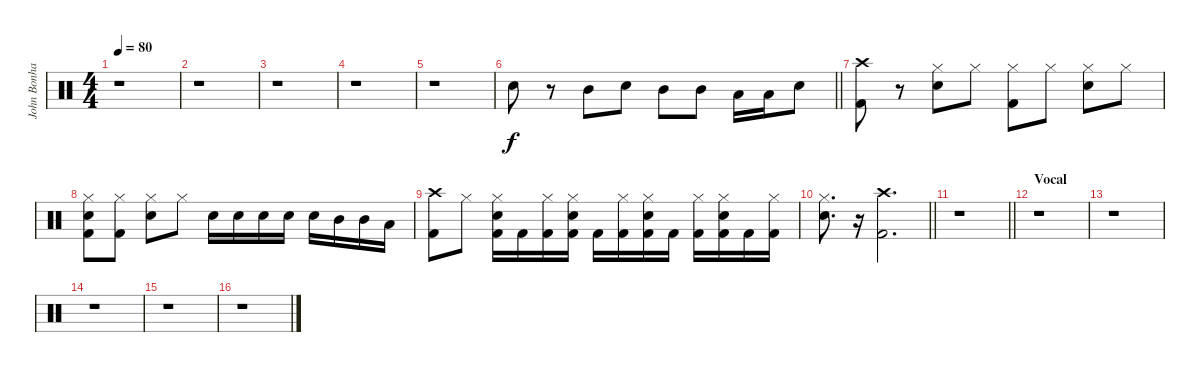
\track ("John Bonham (Bateria)" "John Bonha") {instrument percussion}
\staff {score}
\articulation defaults
\ts (4 4)
\tempo 80
\clef neutral
\ks c
r.1{dy f} |
r.1 |
r.1 |
r.1 |
r.1 |
\barLineRight lightlight "Snare (hit) 2".8
r.8 "Mid Tom (hit)".8 "Snare (hit) 2".8 "Mid Tom (hit)".8 "Mid Tom (hit)".8 "Low Floor Tom (hit)".16 "Low Floor Tom (hit)".16 "Snare (hit) 2".8 |
("Crash high (hit)" "Kick (hit) 2").8 r.8 ("Hi-Hat (closed)" "Snare (hit) 2").8 "Hi-Hat (closed)".8 ("Kick (hit) 2" "Hi-Hat (closed)").8 "Hi-Hat (closed)".8 ("Hi-Hat (closed)" "Snare (hit) 2").8 "Hi-Hat (closed)".8 |
("Hi-Hat (closed)" "Kick (hit) 2" "Snare (hit) 2").8 ("Kick (hit) 2" "Hi-Hat (closed)").8 ("Hi-Hat (closed)" "Snare (hit) 2").8 "Hi-Hat (closed)".8 "Snare (hit) 2".16 "Snare (hit) 2".16 "Snare (hit) 2".16 "Snare (hit) 2".16 "Snare (hit) 2".16 "Mid Tom (hit)".16 "Mid Tom (hit)".16 "Low Floor Tom (hit)".16 |
("Crash high (hit)" "Kick (hit) 2").8 "Hi-Hat (closed)".8 ("Snare (hit) 2" "Hi-Hat (closed)" "Kick (hit) 2").16 "Kick (hit) 2".16 ("Hi-Hat (closed)" "Kick (hit) 2").16 ("Kick (hit) 2" "Snare (hit) 2" "Hi-Hat (closed)").16 "Kick (hit) 2".16 ("Hi-Hat (closed)" "Kick (hit) 2").16 ("Kick (hit) 2" "Snare (hit) 2" "Hi-Hat (closed)").16 "Kick (hit) 2".16 ("Hi-Hat (closed)" "Kick (hit) 2").16 ("Hi-Hat (closed)" "Kick (hit) 2" "Snare (hit) 2").16 "Kick (hit) 2".16 ("Kick (hit) 2" "Hi-Hat (closed)").16 |
\barLineRight lightlight
("Snare (hit) 2" "Hi-Hat (closed)").8{d} r.16 ("Kick (hit) 2" "Crash high (hit)").2{d} |
\barLineRight lightlight
r.1 |
\section ("" "Vocal")
r.1 |
r.1 |
r.1 |
r.1 |
r.1
